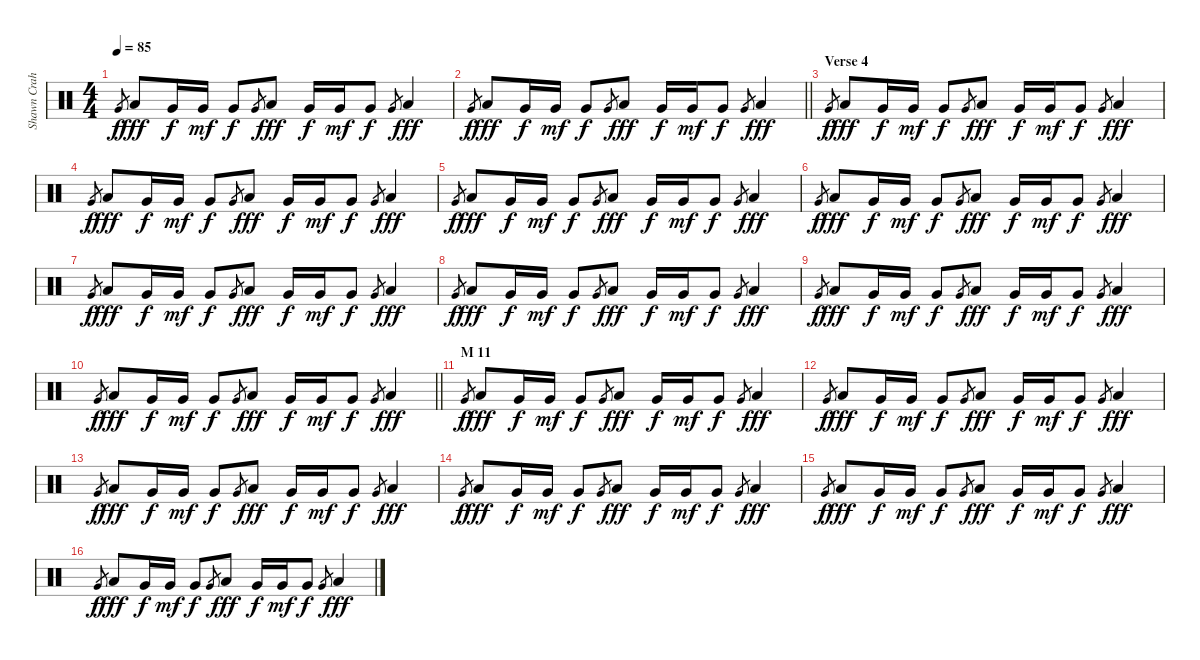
\track ("Shawn Crahan" "Shawn Crah") {instrument percussion}
\staff {score}
\articulation defaults
\ts (4 4)
\tempo 85
\clef neutral
\ks c "Very Low Tom (hit)".8{gr dy f} "Low Tom (hit)".8{dy fff} "Very Low Tom (hit)".16{dy f} "Very Low Tom (hit)".16{dy mf} "Very Low Tom (hit)".8{dy f} "Very Low Tom (hit)".8{gr} "Low Tom (hit)".8{dy fff} "Very Low Tom (hit)".16{dy f} "Very Low Tom (hit)".16{dy mf} "Very Low Tom (hit)".8{dy f} "Very Low Tom (hit)".8{gr} "Low Tom (hit)".4{dy fff}
|
\barLineRight lightlight "Very Low Tom (hit)".8{gr dy f} "Low Tom (hit)".8{dy fff} "Very Low Tom (hit)".16{dy f} "Very Low Tom (hit)".16{dy mf} "Very Low Tom (hit)".8{dy f} "Very Low Tom (hit)".8{gr} "Low Tom (hit)".8{dy fff} "Very Low Tom (hit)".16{dy f} "Very Low Tom (hit)".16{dy mf} "Very Low Tom (hit)".8{dy f} "Very Low Tom (hit)".8{gr} "Low Tom (hit)".4{dy fff}
|
\section ("" "Verse 4")
"Very Low Tom (hit)".8{gr dy f} "Low Tom (hit)".8{dy fff} "Very Low Tom (hit)".16{dy f} "Very Low Tom (hit)".16{dy mf} "Very Low Tom (hit)".8{dy f} "Very Low Tom (hit)".8{gr} "Low Tom (hit)".8{dy fff} "Very Low Tom (hit)".16{dy f} "Very Low Tom (hit)".16{dy mf} "Very Low Tom (hit)".8{dy f} "Very Low Tom (hit)".8{gr} "Low Tom (hit)".4{dy fff} |
"Very Low Tom (hit)".8{gr dy f} "Low Tom (hit)".8{dy fff} "Very Low Tom (hit)".16{dy f} "Very Low Tom (hit)".16{dy mf} "Very Low Tom (hit)".8{dy f} "Very Low Tom (hit)".8{gr} "Low Tom (hit)".8{dy fff} "Very Low Tom (hit)".16{dy f} "Very Low Tom (hit)".16{dy mf} "Very Low Tom (hit)".8{dy f} "Very Low Tom (hit)".8{gr} "Low Tom (hit)".4{dy fff} |
"Very Low Tom (hit)".8{gr dy f} "Low Tom (hit)".8{dy fff} "Very Low Tom (hit)".16{dy f} "Very Low Tom (hit)".16{dy mf} "Very Low Tom (hit)".8{dy f} "Very Low Tom (hit)".8{gr} "Low Tom (hit)".8{dy fff} "Very Low Tom (hit)".16{dy f} "Very Low Tom (hit)".16{dy mf} "Very Low Tom (hit)".8{dy f} "Very Low Tom (hit)".8{gr} "Low Tom (hit)".4{dy fff} |
"Very Low Tom (hit)".8{gr dy f} "Low Tom (hit)".8{dy fff} "Very Low Tom (hit)".16{dy f} "Very Low Tom (hit)".16{dy mf} "Very Low Tom (hit)".8{dy f} "Very Low Tom (hit)".8{gr} "Low Tom (hit)".8{dy fff} "Very Low Tom (hit)".16{dy f} "Very Low Tom (hit)".16{dy mf} "Very Low Tom (hit)".8{dy f} "Very Low Tom (hit)".8{gr} "Low Tom (hit)".4{dy fff} |
"Very Low Tom (hit)".8{gr dy f} "Low Tom (hit)".8{dy fff} "Very Low Tom (hit)".16{dy f} "Very Low Tom (hit)".16{dy mf} "Very Low Tom (hit)".8{dy f} "Very Low Tom (hit)".8{gr} "Low Tom (hit)".8{dy fff} "Very Low Tom (hit)".16{dy f} "Very Low Tom (hit)".16{dy mf} "Very Low Tom (hit)".8{dy f} "Very Low Tom (hit)".8{gr} "Low Tom (hit)".4{dy fff} |
"Very Low Tom (hit)".8{gr dy f} "Low Tom (hit)".8{dy fff} "Very Low Tom (hit)".16{dy f} "Very Low Tom (hit)".16{dy mf} "Very Low Tom (hit)".8{dy f} "Very Low Tom (hit)".8{gr} "Low Tom (hit)".8{dy fff} "Very Low Tom (hit)".16{dy f} "Very Low Tom (hit)".16{dy mf} "Very Low Tom (hit)".8{dy f} "Very Low Tom (hit)".8{gr} "Low Tom (hit)".4{dy fff} |
"Very Low Tom (hit)".8{gr dy f} "Low Tom (hit)".8{dy fff} "Very Low Tom (hit)".16{dy f} "Very Low Tom (hit)".16{dy mf} "Very Low Tom (hit)".8{dy f} "Very Low Tom (hit)".8{gr} "Low Tom (hit)".8{dy fff} "Very Low Tom (hit)".16{dy f} "Very Low Tom (hit)".16{dy mf} "Very Low Tom (hit)".8{dy f} "Very Low Tom (hit)".8{gr} "Low Tom (hit)".4{dy fff} |
\barLineRight lightlight "Very Low Tom (hit)".8{gr dy f} "Low Tom (hit)".8{dy fff} "Very Low Tom (hit)".16{dy f} "Very Low Tom (hit)".16{dy mf} "Very Low Tom (hit)".8{dy f} "Very Low Tom (hit)".8{gr} "Low Tom (hit)".8{dy fff} "Very Low Tom (hit)".16{dy f} "Very Low Tom (hit)".16{dy mf} "Very Low Tom (hit)".8{dy f} "Very Low Tom (hit)".8{gr} "Low Tom (hit)".4{dy fff}
|
\section ("" "M 11")
"Very Low Tom (hit)".8{gr dy f} "Low Tom (hit)".8{dy fff} "Very Low Tom (hit)".16{dy f} "Very Low Tom (hit)".16{dy mf} "Very Low Tom (hit)".8{dy f} "Very Low Tom (hit)".8{gr} "Low Tom (hit)".8{dy fff} "Very Low Tom (hit)".16{dy f} "Very Low Tom (hit)".16{dy mf} "Very Low Tom (hit)".8{dy f} "Very Low Tom (hit)".8{gr} "Low Tom (hit)".4{dy fff} |
"Very Low Tom (hit)".8{gr dy f} "Low Tom (hit)".8{dy fff} "Very Low Tom (hit)".16{dy f} "Very Low Tom (hit)".16{dy mf} "Very Low Tom (hit)".8{dy f} "Very Low Tom (hit)".8{gr} "Low Tom (hit)".8{dy fff} "Very Low Tom (hit)".16{dy f} "Very Low Tom (hit)".16{dy mf} "Very Low Tom (hit)".8{dy f} "Very Low Tom (hit)".8{gr} "Low Tom (hit)".4{dy fff} |
"Very Low Tom (hit)".8{gr dy f} "Low Tom (hit)".8{dy fff} "Very Low Tom (hit)".16{dy f} "Very Low Tom (hit)".16{dy mf} "Very Low Tom (hit)".8{dy f} "Very Low Tom (hit)".8{gr} "Low Tom (hit)".8{dy fff} "Very Low Tom (hit)".16{dy f} "Very Low Tom (hit)".16{dy mf} "Very Low Tom (hit)".8{dy f} "Very Low Tom (hit)".8{gr} "Low Tom (hit)".4{dy fff} |
"Very Low Tom (hit)".8{gr dy f} "Low Tom (hit)".8{dy fff} "Very Low Tom (hit)".16{dy f} "Very Low Tom (hit)".16{dy mf} "Very Low Tom (hit)".8{dy f} "Very Low Tom (hit)".8{gr} "Low Tom (hit)".8{dy fff} "Very Low Tom (hit)".16{dy f} "Very Low Tom (hit)".16{dy mf} "Very Low Tom (hit)".8{dy f} "Very Low Tom (hit)".8{gr} "Low Tom (hit)".4{dy fff} |
"Very Low Tom (hit)".8{gr dy f} "Low Tom (hit)".8{dy fff} "Very Low Tom (hit)".16{dy f} "Very Low Tom (hit)".16{dy mf} "Very Low Tom (hit)".8{dy f} "Very Low Tom (hit)".8{gr} "Low Tom (hit)".8{dy fff} "Very Low Tom (hit)".16{dy f} "Very Low Tom (hit)".16{dy mf} "Very Low Tom (hit)".8{dy f} "Very Low Tom (hit)".8{gr} "Low Tom (hit)".4{dy fff} |
"Very Low Tom (hit)".8{gr dy f} "Low Tom (hit)".8{dy fff} "Very Low Tom (hit)".16{dy f} "Very Low Tom (hit)".16{dy mf} "Very Low Tom (hit)".8{dy f} "Very Low Tom (hit)".8{gr} "Low Tom (hit)".8{dy fff} "Very Low Tom (hit)".16{dy f} "Very Low Tom (hit)".16{dy mf} "Very Low Tom (hit)".8{dy f} "Very Low Tom (hit)".8{gr} "Low Tom (hit)".4{dy fff}
